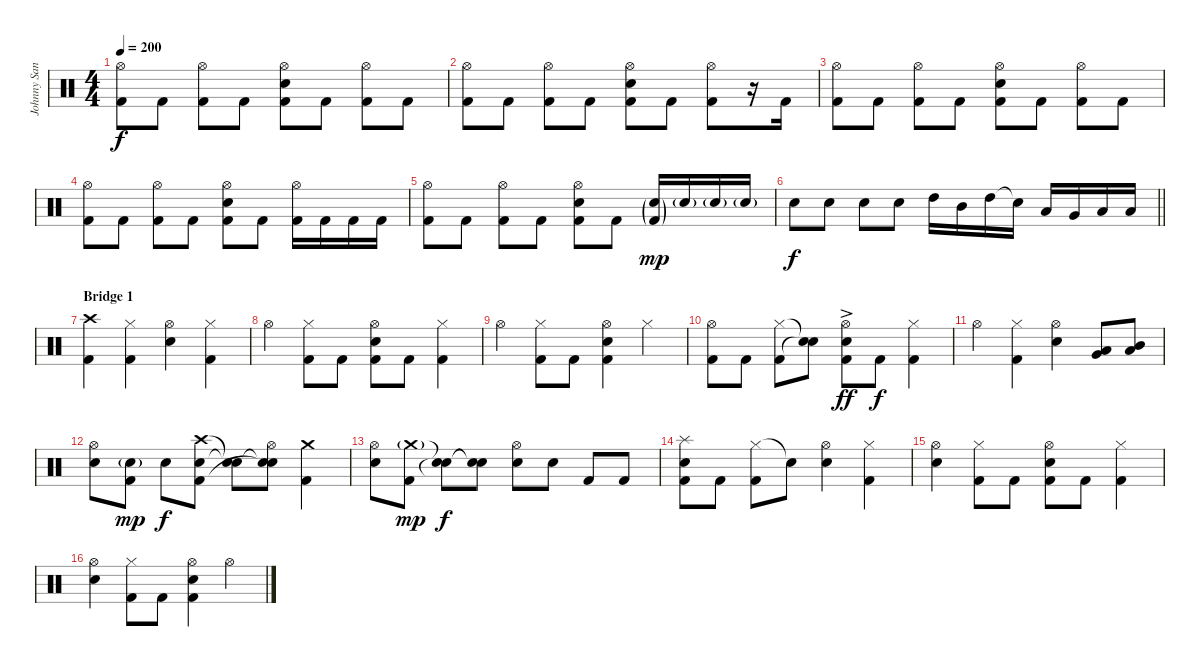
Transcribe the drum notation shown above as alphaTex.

\track ("Johnny Sandin" "Johnny San") {instrument percussion}
\staff {score}
\articulation defaults
\ts (4 4)
\tempo 200
\clef neutral
\ks c
("Hi-Hat (open)" "Kick (hit) 2").8{dy f} "Kick (hit) 2".8 ("Hi-Hat (open)" "Kick (hit) 2").8 "Kick (hit) 2".8 ("Hi-Hat (open)" "Snare (hit) 2" "Kick (hit) 2").8 "Kick (hit) 2".8 ("Hi-Hat (open)" "Kick (hit) 2").8 "Kick (hit) 2".8 |
("Hi-Hat (open)" "Kick (hit) 2").8 "Kick (hit) 2".8 ("Hi-Hat (open)" "Kick (hit) 2").8 "Kick (hit) 2".8 ("Hi-Hat (open)" "Snare (hit) 2" "Kick (hit) 2").8 "Kick (hit) 2".8 ("Hi-Hat (open)" "Kick (hit) 2").8 r.16 "Kick (hit) 2".16 |
("Hi-Hat (open)" "Kick (hit) 2").8 "Kick (hit) 2".8 ("Hi-Hat (open)" "Kick (hit) 2").8 "Kick (hit) 2".8 ("Hi-Hat (open)" "Snare (hit) 2" "Kick (hit) 2").8 "Kick (hit) 2".8 ("Hi-Hat (open)" "Kick (hit) 2").8 "Kick (hit) 2".8 |
("Hi-Hat (open)" "Kick (hit) 2").8 "Kick (hit) 2".8 ("Hi-Hat (open)" "Kick (hit) 2").8 "Kick (hit) 2".8 ("Hi-Hat (open)" "Snare (hit) 2" "Kick (hit) 2").8 "Kick (hit) 2".8 ("Hi-Hat (open)" "Kick (hit) 2").16 "Kick (hit) 2".16 "Kick (hit) 2".16 "Kick (hit) 2".16 |
("Hi-Hat (open)" "Kick (hit) 2").8 "Kick (hit) 2".8 ("Hi-Hat (open)" "Kick (hit) 2").8 "Kick (hit) 2".8 ("Hi-Hat (open)" "Snare (hit) 2" "Kick (hit) 2").8 "Kick (hit) 2".8 ("Snare (hit) 2"{g} "Kick (hit) 2"{g}).16{dy mp} "Snare (hit) 2"{g}.16 "Snare (hit) 2"{g}.16 "Snare (hit) 2"{g}.16 |
\barLineRight lightlight "Snare (hit) 2".8{dy f} "Snare (hit) 2".8 "Snare (hit) 2".8 "Snare (hit) 2".8 "High Tom (hit)".16 "Mid Tom (hit)".16 "High Tom (hit)".16 "Snare (hit)"{t}.16 "Low Tom (hit)".16 "Very Low Tom (hit)".16 "Low Tom (hit)".16 "Low Floor Tom (hit)".16
|
\section ("" "Bridge 1")
("Crash high (hit)" "Kick (hit) 2").4 ("Hi-Hat (closed)" "Kick (hit) 2").4 ("Hi-Hat (open)" "Snare (hit) 2").4 ("Hi-Hat (closed)" "Kick (hit) 2").4 |
"Hi-Hat (open)".4 ("Hi-Hat (closed)" "Kick (hit) 2").8 "Kick (hit) 2".8 ("Hi-Hat (open)" "Snare (hit) 2" "Kick (hit) 2").8 "Kick (hit) 2".8 ("Hi-Hat (closed)" "Kick (hit) 2").4 |
"Hi-Hat (open)".4 ("Hi-Hat (closed)" "Kick (hit) 2").8 "Kick (hit) 2".8 ("Hi-Hat (open)" "Snare (hit) 2" "Kick (hit) 2").4 "Hi-Hat (closed)".4 |
("Hi-Hat (open)" "Kick (hit) 2").8 "Kick (hit) 2".8 ("Hi-Hat (closed)" "Kick (hit) 2").8 ("Snare (hit)"{t} "Snare (hit)"{t}).8 ("Hi-Hat (open)"{ac} "Snare (hit) 2" "Kick (hit) 2").8{dy ff} "Kick (hit) 2".8{dy f} ("Hi-Hat (closed)" "Kick (hit) 2").4 |
"Hi-Hat (open)".4 ("Hi-Hat (closed)" "Kick (hit) 2").4 ("Hi-Hat (open)" "Snare (hit) 2").4 ("Low Tom (hit)" "Very Low Tom (hit)").8 ("Mid Tom (hit)" "Low Tom (hit)").8 |
("Hi-Hat (open)" "Snare (hit) 2").8 ("Snare (hit) 2"{g} "Kick (hit) 2").8{dy mp} "Snare (hit) 2".8{dy f} ("Crash high (hit)" "Snare (hit) 2" "Kick (hit) 2").8 ("Snare (hit)"{t} "Snare (hit)"{t}).8 ("Hi-Hat (open)" "Snare (hit)"{t} "Snare (hit)"{t}).8 ("Crash medium (hit)" "Kick (hit) 2").4 |
("Hi-Hat (open)" "Snare (hit) 2").8 ("Crash medium (hit)"{g} "Kick (hit) 2").8{dy mp} ("Snare (hit)"{t} "Snare (hit)"{t}).8{dy f} ("Snare (hit)"{t} "Snare (hit)"{t}).8 ("Hi-Hat (open)" "Snare (hit) 2").8 "Snare (hit) 2".8 "Kick (hit) 2".8 "Kick (hit) 2".8 |
("Splash (hit)" "Snare (hit) 2" "Kick (hit) 2").8 "Kick (hit) 2".8 ("Hi-Hat (closed)" "Kick (hit) 2").8 "Snare (hit)"{t}.8 ("Hi-Hat (open)" "Snare (hit) 2").4 ("Hi-Hat (closed)" "Kick (hit) 2").4 |
("Hi-Hat (open)" "Snare (hit) 2").4 ("Hi-Hat (closed)" "Kick (hit) 2").8 "Kick (hit) 2".8 ("Hi-Hat (open)" "Snare (hit) 2" "Kick (hit) 2").8 "Kick (hit) 2".8 ("Hi-Hat (closed)" "Kick (hit) 2").4 |
("Hi-Hat (open)" "Snare (hit) 2").4 ("Hi-Hat (closed)" "Kick (hit) 2").8 "Kick (hit) 2".8 ("Hi-Hat (open)" "Snare (hit) 2" "Kick (hit) 2").4 "Hi-Hat (open)".4
